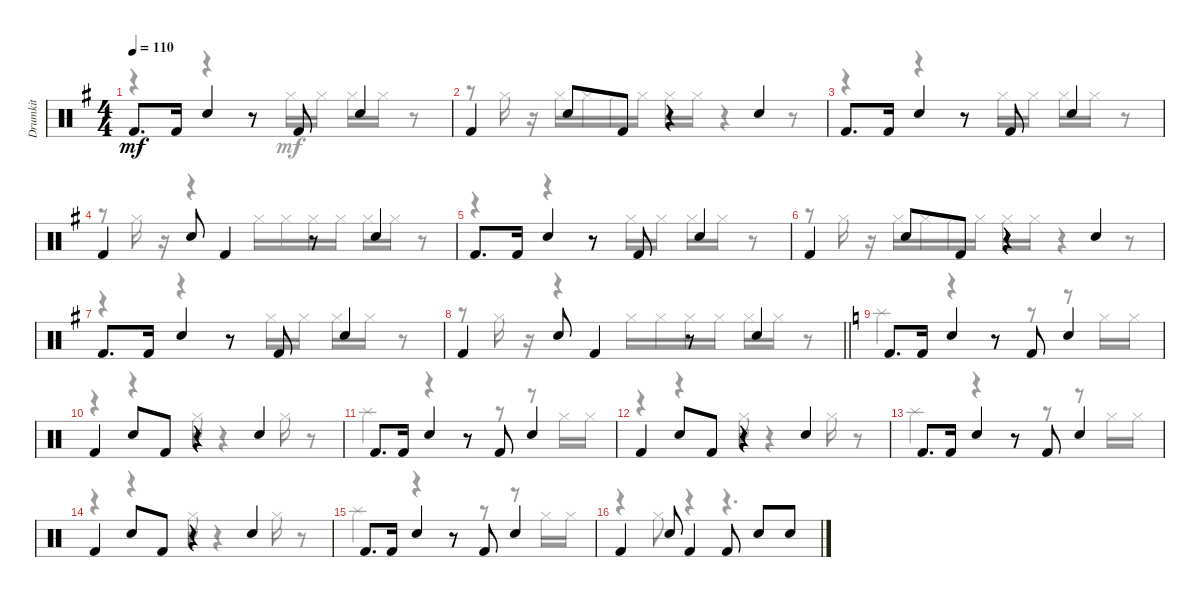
\track ("Drumkit" "Drumkit") {instrument percussion}
\staff {score}
\articulation defaults
\voice
\ts (4 4)
\tempo 110
\clef neutral
\ks g "Kick (hit) 2".8{d dy mf} "Kick (hit) 2".16 "Snare (hit) 2".4
r.8 "Kick (hit) 2".8 "Snare (hit) 2".4 |
"Kick (hit) 2".4 "Snare (hit) 2".8 "Kick (hit) 2".8 r.4 "Snare (hit) 2".4 |
"Kick (hit) 2".8{d} "Kick (hit) 2".16 "Snare (hit) 2".4 r.8 "Kick (hit) 2".8 "Snare (hit) 2".4 |
"Kick (hit) 2".4 "Snare (hit) 2".8 "Kick (hit) 2".4 r.8 "Snare (hit) 2".4 |
"Kick (hit) 2".8{d} "Kick (hit) 2".16 "Snare (hit) 2".4 r.8 "Kick (hit) 2".8 "Snare (hit) 2".4 |
"Kick (hit) 2".4 "Snare (hit) 2".8 "Kick (hit) 2".8 r.4 "Snare (hit) 2".4 |
"Kick (hit) 2".8{d} "Kick (hit) 2".16 "Snare (hit) 2".4 r.8 "Kick (hit) 2".8 "Snare (hit) 2".4 |
\barLineRight lightlight "Kick (hit) 2".4 "Snare (hit) 2".8 "Kick (hit) 2".4
r.8 "Snare (hit) 2".4 |
\ks c "Kick (hit) 2".8{d} "Kick (hit) 2".16 "Snare (hit) 2".4
r.8 "Kick (hit) 2".8 "Snare (hit) 2".4 |
"Kick (hit) 2".4 "Snare (hit) 2".8 "Kick (hit) 2".8 r.4 "Snare (hit) 2".4 |
"Kick (hit) 2".8{d} "Kick (hit) 2".16 "Snare (hit) 2".4 r.8 "Kick (hit) 2".8 "Snare (hit) 2".4 |
"Kick (hit) 2".4 "Snare (hit) 2".8 "Kick (hit) 2".8 r.4 "Snare (hit) 2".4 |
"Kick (hit) 2".8{d} "Kick (hit) 2".16 "Snare (hit) 2".4 r.8 "Kick (hit) 2".8 "Snare (hit) 2".4 |
"Kick (hit) 2".4 "Snare (hit) 2".8 "Kick (hit) 2".8 r.4 "Snare (hit) 2".4 |
"Kick (hit) 2".8{d} "Kick (hit) 2".16 "Snare (hit) 2".4 r.8 "Kick (hit) 2".8 "Snare (hit) 2".4 |
"Kick (hit) 2".4 "Snare (hit) 2".8 "Kick (hit) 2".4 "Kick (hit) 2".8 "Snare (hit) 2".8 "Snare (hit) 2".8
\voice
\clef neutral
\ottava regular
\simile none
\ks g
r.4{dy mf} r.4 r.8 "Hi-Hat (closed)".16 "Hi-Hat (closed)".16 "Hi-Hat (closed)".16 "Hi-Hat (closed)".16 r.8 |
r.8 "Hi-Hat (closed)".16 r.16 "Hi-Hat (closed)".16 "Hi-Hat (closed)".16 "Hi-Hat (closed)".16 "Hi-Hat (closed)".16 "Hi-Hat (closed)".16 "Hi-Hat (closed)".16 r.4 r.8 |
r.4 r.4 r.8 "Hi-Hat (closed)".16 "Hi-Hat (closed)".16 "Hi-Hat (closed)".16 "Hi-Hat (closed)".16 r.8 |
r.8 "Hi-Hat (closed)".16 r.16 r.4 "Hi-Hat (closed)".16 "Hi-Hat (closed)".16 "Hi-Hat (closed)".16 "Hi-Hat (closed)".16 "Hi-Hat (closed)".16 "Hi-Hat (closed)".16 r.8 |
r.4 r.4 r.8 "Hi-Hat (closed)".16 "Hi-Hat (closed)".16 "Hi-Hat (closed)".16 "Hi-Hat (closed)".16 r.8 |
r.8 "Hi-Hat (closed)".16 r.16 "Hi-Hat (closed)".16 "Hi-Hat (closed)".16 "Hi-Hat (closed)".16 "Hi-Hat (closed)".16 "Hi-Hat (closed)".16 "Hi-Hat (closed)".16 r.4 r.8 |
r.4 r.4 r.8 "Hi-Hat (closed)".16 "Hi-Hat (closed)".16 "Hi-Hat (closed)".16 "Hi-Hat (closed)".16 r.8 |
\barLineRight lightlight
r.8 "Hi-Hat (closed)".16 r.16 r.4 "Hi-Hat (closed)".16 "Hi-Hat (closed)".16 "Hi-Hat (closed)".16 "Hi-Hat (closed)".16 "Hi-Hat (closed)".16 "Hi-Hat (closed)".16 r.8 |
\ks c "Splash (hit)".4
r.4 r.8 r.8 r.8 "Hi-Hat (closed)".16 "Hi-Hat (closed)".16 |
r.4 r.4 "Hi-Hat (closed)".16 r.4 "Hi-Hat (closed)".16 r.8 |
"Splash (hit)".4 r.4 r.8 r.8 r.8 "Hi-Hat (closed)".16 "Hi-Hat (closed)".16 |
r.4 r.4 "Hi-Hat (closed)".16 r.4 "Hi-Hat (closed)".16 r.8 |
"Splash (hit)".4 r.4 r.8 r.8 r.8 "Hi-Hat (closed)".16 "Hi-Hat (closed)".16 |
r.4 r.4 "Hi-Hat (closed)".16 r.4 "Hi-Hat (closed)".16 r.8 |
"Splash (hit)".4 r.4 r.8 r.8 r.8 "Hi-Hat (closed)".16 "Hi-Hat (closed)".16 |
r.4 "Hi-Hat (closed)".8 r.4 r.4{d}
